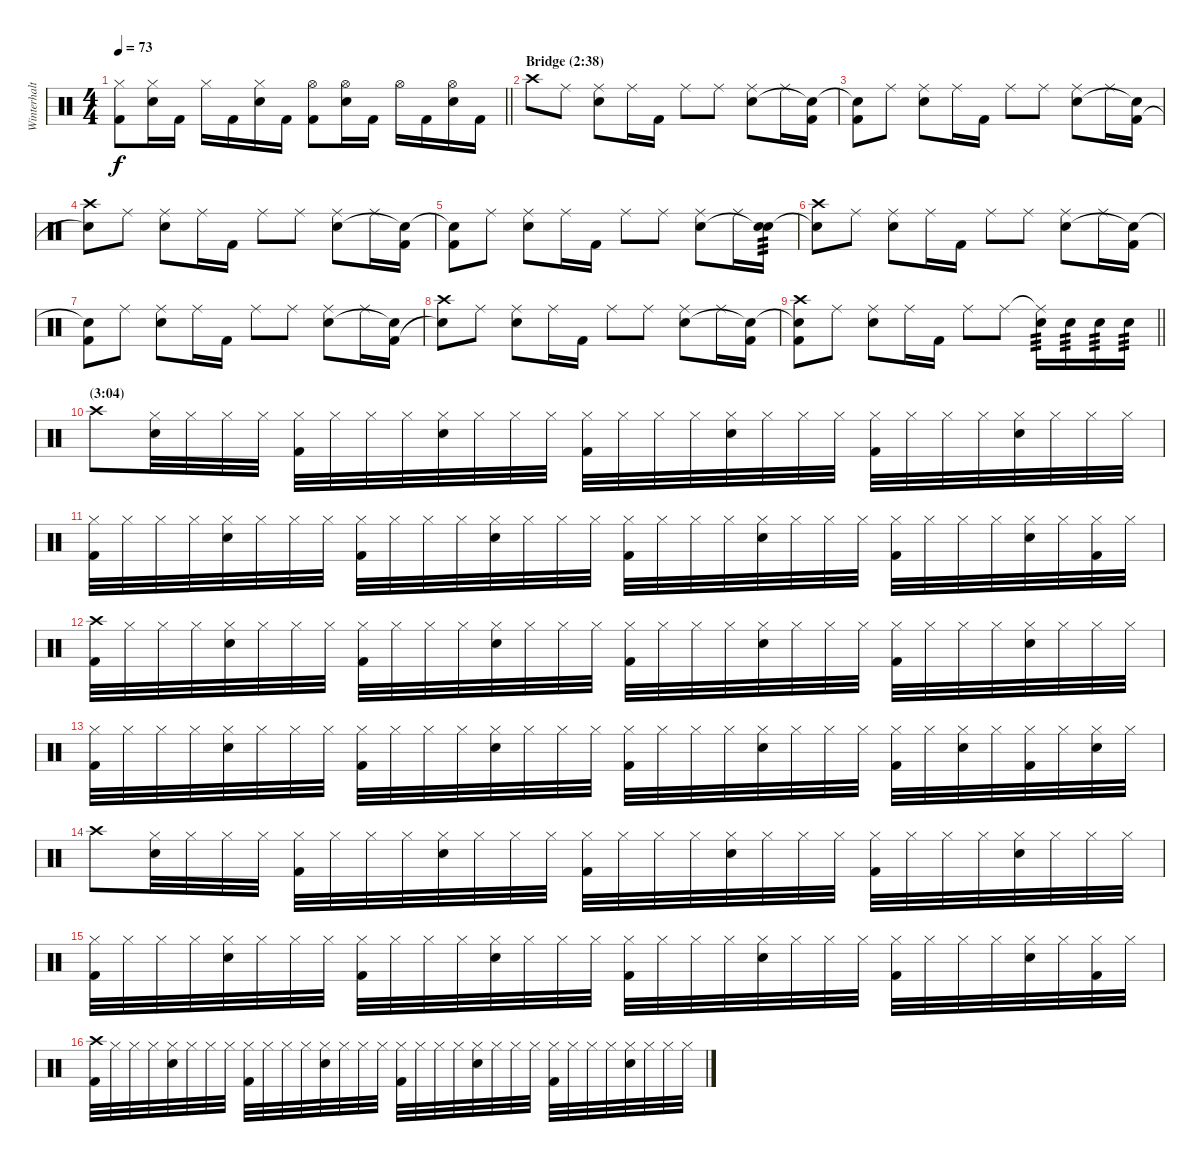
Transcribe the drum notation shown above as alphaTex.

\track ("Winterhalten" "Winterhalt") {instrument percussion}
\staff {score}
\articulation defaults
\ts (4 4)
\tempo 73
\clef neutral
\barLineRight lightlight
\ks c
("Kick (hit) 2" "Hi-Hat (closed)").8{dy f} ("Hi-Hat (closed)" "Snare (hit) 2").16 "Kick (hit) 2".16 "Hi-Hat (closed)".16 "Kick (hit) 2".16 ("Hi-Hat (closed)" "Snare (hit) 2").16 "Kick (hit) 2".16 ("Kick (hit) 2" "Hi-Hat (open)").8 ("Hi-Hat (open)" "Snare (hit) 2").16 "Kick (hit) 2".16 "Hi-Hat (open)".16 "Kick (hit) 2".16 ("Hi-Hat (open)" "Snare (hit) 2").16 "Kick (hit) 2".16 |
\section ("" "Bridge (2:38)")
"Crash high (hit)".8 "Ride (middle)".8 ("Ride (middle)" "Snare (hit) 2").8 "Ride (middle)".16 "Kick (hit) 2".16 "Ride (middle)".8 "Ride (middle)".8 ("Ride (middle)" "Snare (hit) 2").8 "Ride (middle)".16 ("Kick (hit) 2" "Snare (hit)"{t}).16 |
("Kick (hit) 2" "Snare (hit)"{t}).8 "Ride (middle)".8 ("Ride (middle)" "Snare (hit) 2").8 "Ride (middle)".16 "Kick (hit) 2".16 "Ride (middle)".8 "Ride (middle)".8 ("Ride (middle)" "Snare (hit) 2").8 "Ride (middle)".16 ("Kick (hit) 2" "Snare (hit)"{t}).16 |
("Snare (hit)"{t} "Crash high (hit)").8 "Ride (middle)".8 ("Ride (middle)" "Snare (hit) 2").8 "Ride (middle)".16 "Kick (hit) 2".16 "Ride (middle)".8 "Ride (middle)".8 ("Ride (middle)" "Snare (hit) 2").8 "Ride (middle)".16 ("Kick (hit) 2" "Snare (hit)"{t}).16 |
("Kick (hit) 2" "Snare (hit)"{t}).8 "Ride (middle)".8 ("Ride (middle)" "Snare (hit) 2").8 "Ride (middle)".16 "Kick (hit) 2".16 "Ride (middle)".8 "Ride (middle)".8 ("Ride (middle)" "Snare (hit) 2").8 "Ride (middle)".16 ("Snare (hit) 2" "Snare (hit)"{t}).16{tp 3} |
("Snare (hit)"{t} "Crash high (hit)").8 "Ride (middle)".8 ("Ride (middle)" "Snare (hit) 2").8 "Ride (middle)".16 "Kick (hit) 2".16 "Ride (middle)".8 "Ride (middle)".8 ("Ride (middle)" "Snare (hit) 2").8 "Ride (middle)".16 ("Kick (hit) 2" "Snare (hit)"{t}).16 |
("Kick (hit) 2" "Snare (hit)"{t}).8 "Ride (middle)".8 ("Ride (middle)" "Snare (hit) 2").8 "Ride (middle)".16 "Kick (hit) 2".16 "Ride (middle)".8 "Ride (middle)".8 ("Ride (middle)" "Snare (hit) 2").8 "Ride (middle)".16 ("Kick (hit) 2" "Snare (hit)"{t}).16 |
("Snare (hit)"{t} "Crash high (hit)").8 "Ride (middle)".8 ("Ride (middle)" "Snare (hit) 2").8 "Ride (middle)".16 "Kick (hit) 2".16 "Ride (middle)".8 "Ride (middle)".8 ("Ride (middle)" "Snare (hit) 2").8 "Ride (middle)".16 ("Kick (hit) 2" "Snare (hit)"{t}).16 |
\barLineRight lightlight
("Kick (hit) 2" "Snare (hit)"{t} "Crash high (hit)").8 "Ride (middle)".8 ("Ride (middle)" "Snare (hit) 2").8 "Ride (middle)".16 "Kick (hit) 2".16 "Ride (middle)".8 "Ride (middle)".8 ("Ride (middle)"{t} "Snare (hit) 2").16{tp 3} "Snare (hit) 2".16{tp 3} "Snare (hit) 2".16{tp 3} "Snare (hit) 2".16{tp 3} |
\section ("" "(3:04)")
"Crash high (hit)".8 ("Hi-Hat (closed)" "Snare (hit) 2").32 "Hi-Hat (closed)".32 "Hi-Hat (closed)".32 "Hi-Hat (closed)".32 ("Kick (hit) 2" "Hi-Hat (closed)").32 "Hi-Hat (closed)".32 "Hi-Hat (closed)".32 "Hi-Hat (closed)".32 ("Hi-Hat (closed)" "Snare (hit) 2").32 "Hi-Hat (closed)".32 "Hi-Hat (closed)".32 "Hi-Hat (closed)".32 ("Kick (hit) 2" "Hi-Hat (closed)").32 "Hi-Hat (closed)".32 "Hi-Hat (closed)".32 "Hi-Hat (closed)".32 ("Hi-Hat (closed)" "Snare (hit) 2").32 "Hi-Hat (closed)".32 "Hi-Hat (closed)".32 "Hi-Hat (closed)".32 ("Kick (hit) 2" "Hi-Hat (closed)").32 "Hi-Hat (closed)".32 "Hi-Hat (closed)".32 "Hi-Hat (closed)".32 ("Hi-Hat (closed)" "Snare (hit) 2").32 "Hi-Hat (closed)".32 "Hi-Hat (closed)".32 "Hi-Hat (closed)".32 |
("Kick (hit) 2" "Hi-Hat (closed)").32 "Hi-Hat (closed)".32 "Hi-Hat (closed)".32 "Hi-Hat (closed)".32 ("Hi-Hat (closed)" "Snare (hit) 2").32 "Hi-Hat (closed)".32 "Hi-Hat (closed)".32 "Hi-Hat (closed)".32 ("Kick (hit) 2" "Hi-Hat (closed)").32 "Hi-Hat (closed)".32 "Hi-Hat (closed)".32 "Hi-Hat (closed)".32 ("Hi-Hat (closed)" "Snare (hit) 2").32 "Hi-Hat (closed)".32 "Hi-Hat (closed)".32 "Hi-Hat (closed)".32 ("Kick (hit) 2" "Hi-Hat (closed)").32 "Hi-Hat (closed)".32 "Hi-Hat (closed)".32 "Hi-Hat (closed)".32 ("Hi-Hat (closed)" "Snare (hit) 2").32 "Hi-Hat (closed)".32 "Hi-Hat (closed)".32 "Hi-Hat (closed)".32 ("Kick (hit) 2" "Hi-Hat (closed)").32 "Hi-Hat (closed)".32 "Hi-Hat (closed)".32 "Hi-Hat (closed)".32 ("Hi-Hat (closed)" "Snare (hit) 2").32 "Hi-Hat (closed)".32 ("Kick (hit) 2" "Hi-Hat (closed)").32 "Hi-Hat (closed)".32 |
("Kick (hit) 2" "Crash high (hit)").32 "Hi-Hat (closed)".32 "Hi-Hat (closed)".32 "Hi-Hat (closed)".32 ("Hi-Hat (closed)" "Snare (hit) 2").32 "Hi-Hat (closed)".32 "Hi-Hat (closed)".32 "Hi-Hat (closed)".32 ("Kick (hit) 2" "Hi-Hat (closed)").32 "Hi-Hat (closed)".32 "Hi-Hat (closed)".32 "Hi-Hat (closed)".32 ("Hi-Hat (closed)" "Snare (hit) 2").32 "Hi-Hat (closed)".32 "Hi-Hat (closed)".32 "Hi-Hat (closed)".32 ("Kick (hit) 2" "Hi-Hat (closed)").32 "Hi-Hat (closed)".32 "Hi-Hat (closed)".32 "Hi-Hat (closed)".32 ("Hi-Hat (closed)" "Snare (hit) 2").32 "Hi-Hat (closed)".32 "Hi-Hat (closed)".32 "Hi-Hat (closed)".32 ("Kick (hit) 2" "Hi-Hat (closed)").32 "Hi-Hat (closed)".32 "Hi-Hat (closed)".32 "Hi-Hat (closed)".32 ("Hi-Hat (closed)" "Snare (hit) 2").32 "Hi-Hat (closed)".32 "Hi-Hat (closed)".32 "Hi-Hat (closed)".32 |
("Kick (hit) 2" "Hi-Hat (closed)").32 "Hi-Hat (closed)".32 "Hi-Hat (closed)".32 "Hi-Hat (closed)".32 ("Hi-Hat (closed)" "Snare (hit) 2").32 "Hi-Hat (closed)".32 "Hi-Hat (closed)".32 "Hi-Hat (closed)".32 ("Kick (hit) 2" "Hi-Hat (closed)").32 "Hi-Hat (closed)".32 "Hi-Hat (closed)".32 "Hi-Hat (closed)".32 ("Hi-Hat (closed)" "Snare (hit) 2").32 "Hi-Hat (closed)".32 "Hi-Hat (closed)".32 "Hi-Hat (closed)".32 ("Kick (hit) 2" "Hi-Hat (closed)").32 "Hi-Hat (closed)".32 "Hi-Hat (closed)".32 "Hi-Hat (closed)".32 ("Hi-Hat (closed)" "Snare (hit) 2").32 "Hi-Hat (closed)".32 "Hi-Hat (closed)".32 "Hi-Hat (closed)".32 ("Kick (hit) 2" "Hi-Hat (closed)").32 "Hi-Hat (closed)".32 ("Hi-Hat (closed)" "Snare (hit) 2").32 "Hi-Hat (closed)".32 ("Kick (hit) 2" "Hi-Hat (closed)").32 "Hi-Hat (closed)".32 ("Hi-Hat (closed)" "Snare (hit) 2").32 "Hi-Hat (closed)".32 |
"Crash high (hit)".8 ("Hi-Hat (closed)" "Snare (hit) 2").32 "Hi-Hat (closed)".32 "Hi-Hat (closed)".32 "Hi-Hat (closed)".32 ("Kick (hit) 2" "Hi-Hat (closed)").32 "Hi-Hat (closed)".32 "Hi-Hat (closed)".32 "Hi-Hat (closed)".32 ("Hi-Hat (closed)" "Snare (hit) 2").32 "Hi-Hat (closed)".32 "Hi-Hat (closed)".32 "Hi-Hat (closed)".32 ("Kick (hit) 2" "Hi-Hat (closed)").32 "Hi-Hat (closed)".32 "Hi-Hat (closed)".32 "Hi-Hat (closed)".32 ("Hi-Hat (closed)" "Snare (hit) 2").32 "Hi-Hat (closed)".32 "Hi-Hat (closed)".32 "Hi-Hat (closed)".32 ("Kick (hit) 2" "Hi-Hat (closed)").32 "Hi-Hat (closed)".32 "Hi-Hat (closed)".32 "Hi-Hat (closed)".32 ("Hi-Hat (closed)" "Snare (hit) 2").32 "Hi-Hat (closed)".32 "Hi-Hat (closed)".32 "Hi-Hat (closed)".32 |
("Kick (hit) 2" "Hi-Hat (closed)").32 "Hi-Hat (closed)".32 "Hi-Hat (closed)".32 "Hi-Hat (closed)".32 ("Hi-Hat (closed)" "Snare (hit) 2").32 "Hi-Hat (closed)".32 "Hi-Hat (closed)".32 "Hi-Hat (closed)".32 ("Kick (hit) 2" "Hi-Hat (closed)").32 "Hi-Hat (closed)".32 "Hi-Hat (closed)".32 "Hi-Hat (closed)".32 ("Hi-Hat (closed)" "Snare (hit) 2").32 "Hi-Hat (closed)".32 "Hi-Hat (closed)".32 "Hi-Hat (closed)".32 ("Kick (hit) 2" "Hi-Hat (closed)").32 "Hi-Hat (closed)".32 "Hi-Hat (closed)".32 "Hi-Hat (closed)".32 ("Hi-Hat (closed)" "Snare (hit) 2").32 "Hi-Hat (closed)".32 "Hi-Hat (closed)".32 "Hi-Hat (closed)".32 ("Kick (hit) 2" "Hi-Hat (closed)").32 "Hi-Hat (closed)".32 "Hi-Hat (closed)".32 "Hi-Hat (closed)".32 ("Hi-Hat (closed)" "Snare (hit) 2").32 "Hi-Hat (closed)".32 ("Kick (hit) 2" "Hi-Hat (closed)").32 "Hi-Hat (closed)".32 |
("Kick (hit) 2" "Crash high (hit)").32 "Hi-Hat (closed)".32 "Hi-Hat (closed)".32 "Hi-Hat (closed)".32 ("Hi-Hat (closed)" "Snare (hit) 2").32 "Hi-Hat (closed)".32 "Hi-Hat (closed)".32 "Hi-Hat (closed)".32 ("Kick (hit) 2" "Hi-Hat (closed)").32 "Hi-Hat (closed)".32 "Hi-Hat (closed)".32 "Hi-Hat (closed)".32 ("Hi-Hat (closed)" "Snare (hit) 2").32 "Hi-Hat (closed)".32 "Hi-Hat (closed)".32 "Hi-Hat (closed)".32 ("Kick (hit) 2" "Hi-Hat (closed)").32 "Hi-Hat (closed)".32 "Hi-Hat (closed)".32 "Hi-Hat (closed)".32 ("Hi-Hat (closed)" "Snare (hit) 2").32 "Hi-Hat (closed)".32 "Hi-Hat (closed)".32 "Hi-Hat (closed)".32 ("Kick (hit) 2" "Hi-Hat (closed)").32 "Hi-Hat (closed)".32 "Hi-Hat (closed)".32 "Hi-Hat (closed)".32 ("Hi-Hat (closed)" "Snare (hit) 2").32 "Hi-Hat (closed)".32 "Hi-Hat (closed)".32 "Hi-Hat (closed)".32
